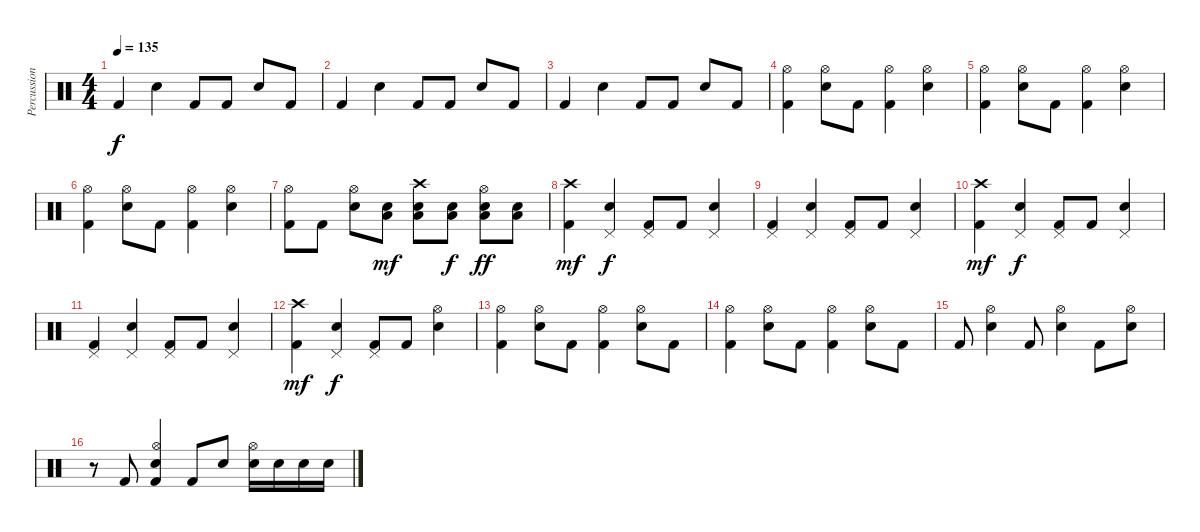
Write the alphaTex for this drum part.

\track ("Percussion" "Percussion") {instrument percussion}
\staff {score}
\articulation defaults
\ts (4 4)
\tempo 135
\clef neutral
\ks c "Kick (hit) 2".4{dy f} "Electric Snare (hit)".4 "Kick (hit) 2".8 "Kick (hit) 2".8 "Electric Snare (hit)".8 "Kick (hit) 2".8
|
"Kick (hit) 2".4 "Electric Snare (hit)".4 "Kick (hit) 2".8 "Kick (hit) 2".8 "Electric Snare (hit)".8 "Kick (hit) 2".8 |
"Kick (hit) 2".4 "Electric Snare (hit)".4 "Kick (hit) 2".8 "Kick (hit) 2".8 "Electric Snare (hit)".8 "Kick (hit) 2".8 |
("Hi-Hat (open)" "Kick (hit) 2").4 ("Hi-Hat (open)" "Snare (hit) 2").8 "Kick (hit) 2".8 ("Hi-Hat (open)" "Kick (hit) 2").4 ("Hi-Hat (open)" "Snare (hit) 2").4 |
("Hi-Hat (open)" "Kick (hit) 2").4 ("Hi-Hat (open)" "Snare (hit) 2").8 "Kick (hit) 2".8 ("Hi-Hat (open)" "Kick (hit) 2").4 ("Hi-Hat (open)" "Snare (hit) 2").4 |
("Hi-Hat (open)" "Kick (hit) 2").4 ("Hi-Hat (open)" "Snare (hit) 2").8 "Kick (hit) 2".8 ("Hi-Hat (open)" "Kick (hit) 2").4 ("Hi-Hat (open)" "Snare (hit) 2").4 |
("Hi-Hat (open)" "Kick (hit) 2").8 "Kick (hit) 2".8 ("Hi-Hat (open)" "Snare (hit) 2").8 ("Snare (hit) 2" "Low Floor Tom (hit)").8{dy mf} ("Crash high (hit)" "Snare (hit) 2" "Low Floor Tom (hit)").8 ("Snare (hit) 2" "Low Floor Tom (hit)").8{dy f} ("Hi-Hat (open)" "Snare (hit) 2" "Low Floor Tom (hit)").8{bd 120 dy ff} ("Snare (hit) 2" "Low Floor Tom (hit)").8 |
("Crash high (hit)" "Kick (hit) 2").4{dy mf} ("Pedal Hi-Hat (hit)" "Snare (hit) 2").4{dy f} ("Pedal Hi-Hat (hit)" "Kick (hit) 2").8 "Kick (hit) 2".8 ("Pedal Hi-Hat (hit)" "Snare (hit) 2").4 |
("Pedal Hi-Hat (hit)" "Kick (hit) 2").4 ("Pedal Hi-Hat (hit)" "Snare (hit) 2").4 ("Pedal Hi-Hat (hit)" "Kick (hit) 2").8 "Kick (hit) 2".8 ("Pedal Hi-Hat (hit)" "Snare (hit) 2").4 |
("Crash high (hit)" "Kick (hit) 2").4{dy mf} ("Pedal Hi-Hat (hit)" "Snare (hit) 2").4{dy f} ("Pedal Hi-Hat (hit)" "Kick (hit) 2").8 "Kick (hit) 2".8 ("Pedal Hi-Hat (hit)" "Snare (hit) 2").4 |
("Pedal Hi-Hat (hit)" "Kick (hit) 2").4 ("Pedal Hi-Hat (hit)" "Snare (hit) 2").4 ("Pedal Hi-Hat (hit)" "Kick (hit) 2").8 "Kick (hit) 2".8 ("Pedal Hi-Hat (hit)" "Snare (hit) 2").4 |
("Crash high (hit)" "Kick (hit) 2").4{dy mf} ("Pedal Hi-Hat (hit)" "Snare (hit) 2").4{dy f} ("Pedal Hi-Hat (hit)" "Kick (hit) 2").8 "Kick (hit) 2".8 ("Hi-Hat (open)" "Snare (hit) 2").4 |
("Hi-Hat (open)" "Kick (hit) 2").4 ("Hi-Hat (open)" "Snare (hit) 2").8 "Kick (hit) 2".8 ("Hi-Hat (open)" "Kick (hit) 2").4 ("Hi-Hat (open)" "Snare (hit) 2").8 "Kick (hit) 2".8 |
("Hi-Hat (open)" "Kick (hit) 2").4 ("Hi-Hat (open)" "Snare (hit) 2").8 "Kick (hit) 2".8 ("Hi-Hat (open)" "Kick (hit) 2").4 ("Hi-Hat (open)" "Snare (hit) 2").8 "Kick (hit) 2".8 |
"Kick (hit) 2".8 ("Hi-Hat (open)" "Snare (hit) 2").4 "Kick (hit) 2".8 ("Hi-Hat (open)" "Snare (hit) 2").4 "Kick (hit) 2".8 ("Hi-Hat (open)" "Snare (hit) 2").8 |
r.8 "Kick (hit) 2".8 ("Hi-Hat (open)" "Snare (hit) 2" "Kick (hit) 2").4 "Kick (hit) 2".8 "Snare (hit) 2".8 ("Hi-Hat (open)" "Snare (hit) 2").16 "Snare (hit) 2".16 "Snare (hit) 2".16 "Snare (hit) 2".16
